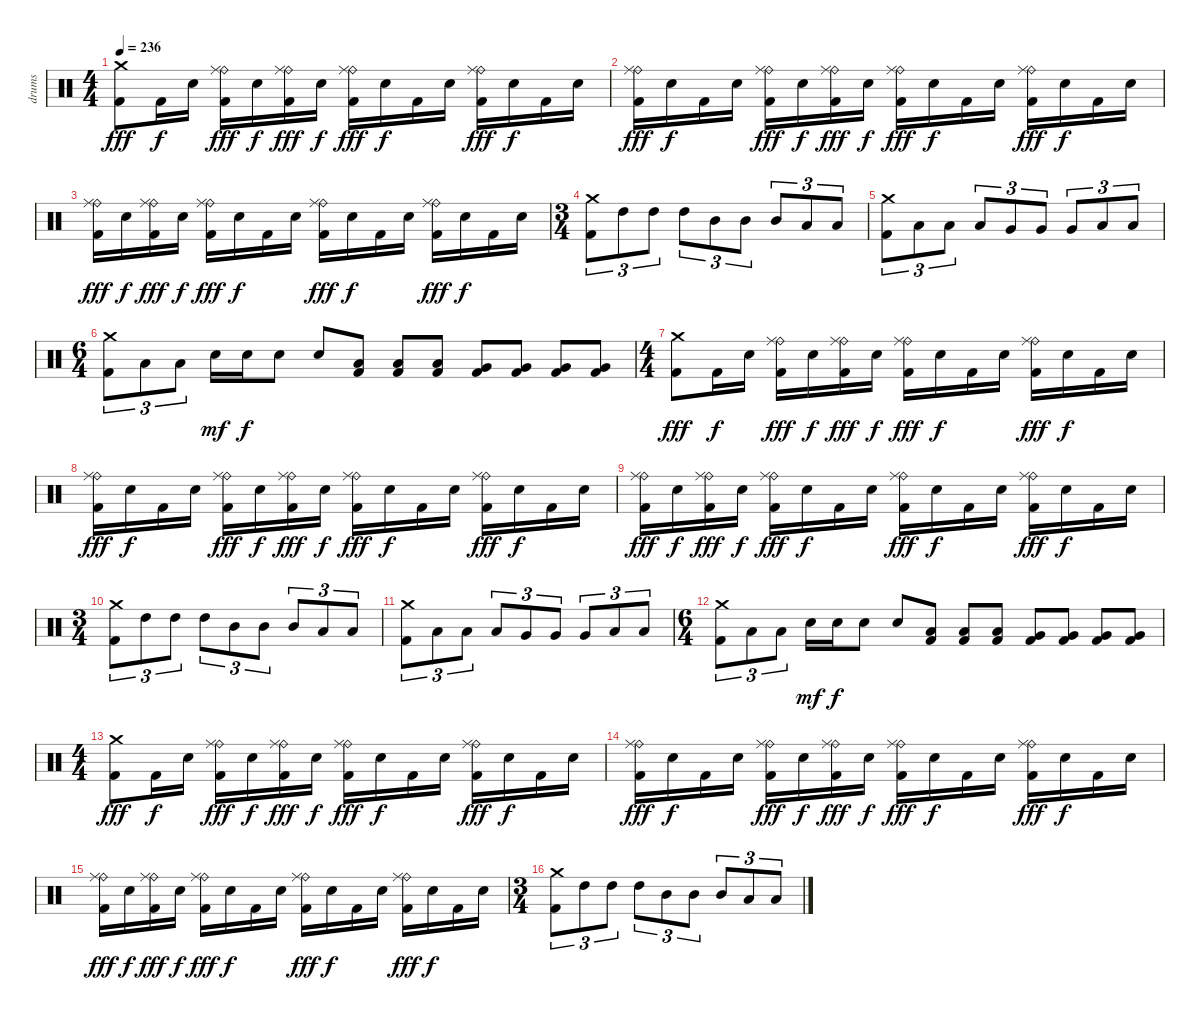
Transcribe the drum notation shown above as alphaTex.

\track ("drums" "drums") {instrument percussion}
\staff {score}
\articulation defaults
\ts (4 4)
\tempo 236
\clef neutral
\ks c
("Crash medium (hit)" "Kick (hit) 2").8{dy fff} "Kick (hit) 2".16{dy f} "Electric Snare (hit)".16 ("Ride (bell)" "Ride (middle)" "Kick (hit) 2").16{dy fff} "Electric Snare (hit)".16{dy f} ("Ride (bell)" "Ride (middle)" "Kick (hit) 2").16{dy fff} "Electric Snare (hit)".16{dy f} ("Ride (bell)" "Ride (middle)" "Kick (hit) 2").16{dy fff} "Electric Snare (hit)".16{dy f} "Kick (hit) 2".16 "Electric Snare (hit)".16 ("Ride (bell)" "Ride (middle)" "Kick (hit) 2").16{dy fff} "Electric Snare (hit)".16{dy f} "Kick (hit) 2".16 "Electric Snare (hit)".16 |
("Ride (bell)" "Ride (middle)" "Kick (hit) 2").16{dy fff} "Electric Snare (hit)".16{dy f} "Kick (hit) 2".16 "Electric Snare (hit)".16 ("Ride (bell)" "Ride (middle)" "Kick (hit) 2").16{dy fff} "Electric Snare (hit)".16{dy f} ("Ride (bell)" "Ride (middle)" "Kick (hit) 2").16{dy fff} "Electric Snare (hit)".16{dy f} ("Ride (bell)" "Ride (middle)" "Kick (hit) 2").16{dy fff} "Electric Snare (hit)".16{dy f} "Kick (hit) 2".16 "Electric Snare (hit)".16 ("Ride (bell)" "Ride (middle)" "Kick (hit) 2").16{dy fff} "Electric Snare (hit)".16{dy f} "Kick (hit) 2".16 "Electric Snare (hit)".16 |
("Ride (bell)" "Ride (middle)" "Kick (hit) 2").16{dy fff} "Electric Snare (hit)".16{dy f} ("Ride (bell)" "Ride (middle)" "Kick (hit) 2").16{dy fff} "Electric Snare (hit)".16{dy f} ("Ride (bell)" "Ride (middle)" "Kick (hit) 2").16{dy fff} "Electric Snare (hit)".16{dy f} "Kick (hit) 2".16 "Electric Snare (hit)".16 ("Ride (bell)" "Ride (middle)" "Kick (hit) 2").16{dy fff} "Electric Snare (hit)".16{dy f} "Kick (hit) 2".16 "Electric Snare (hit)".16 ("Ride (bell)" "Ride (middle)" "Kick (hit) 2").16{dy fff} "Electric Snare (hit)".16{dy f} "Kick (hit) 2".16 "Electric Snare (hit)".16 |
\ts (3 4)
("Crash medium (hit)" "Kick (hit) 2").8{tu (3 2)} "High Tom (hit)".8{tu (3 2)} "High Tom (hit)".8{tu (3 2)} "High Tom (hit)".8{tu (3 2)} "Mid Tom (hit)".8{tu (3 2)} "Mid Tom (hit)".8{tu (3 2)} "Mid Tom (hit)".8{tu (3 2)} "Low Tom (hit)".8{tu (3 2)} "Low Tom (hit)".8{tu (3 2)} |
("Crash medium (hit)" "Kick (hit) 2").8{tu (3 2)} "Low Tom (hit)".8{tu (3 2)} "Low Tom (hit)".8{tu (3 2)} "Low Tom (hit)".8{tu (3 2)} "Very Low Tom (hit)".8{tu (3 2)} "Very Low Tom (hit)".8{tu (3 2)} "Very Low Tom (hit)".8{tu (3 2)} "Low Floor Tom (hit)".8{tu (3 2)} "Low Floor Tom (hit)".8{tu (3 2)} |
\ts (6 4)
("Crash medium (hit)" "Kick (hit) 2").8{tu (3 2)} "Low Tom (hit)".8{tu (3 2)} "Low Tom (hit)".8{tu (3 2)} "Electric Snare (hit)".16{dy mf} "Electric Snare (hit)".16{dy f} "Electric Snare (hit)".8 "Electric Snare (hit)".8 ("Low Tom (hit)" "Kick (hit) 2").8 ("Low Tom (hit)" "Kick (hit) 2").8 ("Low Tom (hit)" "Kick (hit) 2").8 ("Very Low Tom (hit)" "Kick (hit) 2").8 ("Very Low Tom (hit)" "Kick (hit) 2").8 ("Very Low Tom (hit)" "Kick (hit) 2").8 ("Very Low Tom (hit)" "Kick (hit) 2").8 |
\ts (4 4)
("Crash medium (hit)" "Kick (hit) 2").8{dy fff} "Kick (hit) 2".16{dy f} "Electric Snare (hit)".16 ("Ride (bell)" "Ride (middle)" "Kick (hit) 2").16{dy fff} "Electric Snare (hit)".16{dy f} ("Ride (bell)" "Ride (middle)" "Kick (hit) 2").16{dy fff} "Electric Snare (hit)".16{dy f} ("Ride (bell)" "Ride (middle)" "Kick (hit) 2").16{dy fff} "Electric Snare (hit)".16{dy f} "Kick (hit) 2".16 "Electric Snare (hit)".16 ("Ride (bell)" "Ride (middle)" "Kick (hit) 2").16{dy fff} "Electric Snare (hit)".16{dy f} "Kick (hit) 2".16 "Electric Snare (hit)".16 |
("Ride (bell)" "Ride (middle)" "Kick (hit) 2").16{dy fff} "Electric Snare (hit)".16{dy f} "Kick (hit) 2".16 "Electric Snare (hit)".16 ("Ride (bell)" "Ride (middle)" "Kick (hit) 2").16{dy fff} "Electric Snare (hit)".16{dy f} ("Ride (bell)" "Ride (middle)" "Kick (hit) 2").16{dy fff} "Electric Snare (hit)".16{dy f} ("Ride (bell)" "Ride (middle)" "Kick (hit) 2").16{dy fff} "Electric Snare (hit)".16{dy f} "Kick (hit) 2".16 "Electric Snare (hit)".16 ("Ride (bell)" "Ride (middle)" "Kick (hit) 2").16{dy fff} "Electric Snare (hit)".16{dy f} "Kick (hit) 2".16 "Electric Snare (hit)".16 |
("Ride (bell)" "Ride (middle)" "Kick (hit) 2").16{dy fff} "Electric Snare (hit)".16{dy f} ("Ride (bell)" "Ride (middle)" "Kick (hit) 2").16{dy fff} "Electric Snare (hit)".16{dy f} ("Ride (bell)" "Ride (middle)" "Kick (hit) 2").16{dy fff} "Electric Snare (hit)".16{dy f} "Kick (hit) 2".16 "Electric Snare (hit)".16 ("Ride (bell)" "Ride (middle)" "Kick (hit) 2").16{dy fff} "Electric Snare (hit)".16{dy f} "Kick (hit) 2".16 "Electric Snare (hit)".16 ("Ride (bell)" "Ride (middle)" "Kick (hit) 2").16{dy fff} "Electric Snare (hit)".16{dy f} "Kick (hit) 2".16 "Electric Snare (hit)".16 |
\ts (3 4)
("Crash medium (hit)" "Kick (hit) 2").8{tu (3 2)} "High Tom (hit)".8{tu (3 2)} "High Tom (hit)".8{tu (3 2)} "High Tom (hit)".8{tu (3 2)} "Mid Tom (hit)".8{tu (3 2)} "Mid Tom (hit)".8{tu (3 2)} "Mid Tom (hit)".8{tu (3 2)} "Low Tom (hit)".8{tu (3 2)} "Low Tom (hit)".8{tu (3 2)} |
("Crash medium (hit)" "Kick (hit) 2").8{tu (3 2)} "Low Tom (hit)".8{tu (3 2)} "Low Tom (hit)".8{tu (3 2)} "Low Tom (hit)".8{tu (3 2)} "Very Low Tom (hit)".8{tu (3 2)} "Very Low Tom (hit)".8{tu (3 2)} "Very Low Tom (hit)".8{tu (3 2)} "Low Floor Tom (hit)".8{tu (3 2)} "Low Floor Tom (hit)".8{tu (3 2)} |
\ts (6 4)
("Crash medium (hit)" "Kick (hit) 2").8{tu (3 2)} "Low Tom (hit)".8{tu (3 2)} "Low Tom (hit)".8{tu (3 2)} "Electric Snare (hit)".16{dy mf} "Electric Snare (hit)".16{dy f} "Electric Snare (hit)".8 "Electric Snare (hit)".8 ("Low Tom (hit)" "Kick (hit) 2").8 ("Low Tom (hit)" "Kick (hit) 2").8 ("Low Tom (hit)" "Kick (hit) 2").8 ("Very Low Tom (hit)" "Kick (hit) 2").8 ("Very Low Tom (hit)" "Kick (hit) 2").8 ("Very Low Tom (hit)" "Kick (hit) 2").8 ("Very Low Tom (hit)" "Kick (hit) 2").8 |
\ts (4 4)
("Crash medium (hit)" "Kick (hit) 2").8{dy fff} "Kick (hit) 2".16{dy f} "Electric Snare (hit)".16 ("Ride (bell)" "Ride (middle)" "Kick (hit) 2").16{dy fff} "Electric Snare (hit)".16{dy f} ("Ride (bell)" "Ride (middle)" "Kick (hit) 2").16{dy fff} "Electric Snare (hit)".16{dy f} ("Ride (bell)" "Ride (middle)" "Kick (hit) 2").16{dy fff} "Electric Snare (hit)".16{dy f} "Kick (hit) 2".16 "Electric Snare (hit)".16 ("Ride (bell)" "Ride (middle)" "Kick (hit) 2").16{dy fff} "Electric Snare (hit)".16{dy f} "Kick (hit) 2".16 "Electric Snare (hit)".16 |
("Ride (bell)" "Ride (middle)" "Kick (hit) 2").16{dy fff} "Electric Snare (hit)".16{dy f} "Kick (hit) 2".16 "Electric Snare (hit)".16 ("Ride (bell)" "Ride (middle)" "Kick (hit) 2").16{dy fff} "Electric Snare (hit)".16{dy f} ("Ride (bell)" "Ride (middle)" "Kick (hit) 2").16{dy fff} "Electric Snare (hit)".16{dy f} ("Ride (bell)" "Ride (middle)" "Kick (hit) 2").16{dy fff} "Electric Snare (hit)".16{dy f} "Kick (hit) 2".16 "Electric Snare (hit)".16 ("Ride (bell)" "Ride (middle)" "Kick (hit) 2").16{dy fff} "Electric Snare (hit)".16{dy f} "Kick (hit) 2".16 "Electric Snare (hit)".16 |
("Ride (bell)" "Ride (middle)" "Kick (hit) 2").16{dy fff} "Electric Snare (hit)".16{dy f} ("Ride (bell)" "Ride (middle)" "Kick (hit) 2").16{dy fff} "Electric Snare (hit)".16{dy f} ("Ride (bell)" "Ride (middle)" "Kick (hit) 2").16{dy fff} "Electric Snare (hit)".16{dy f} "Kick (hit) 2".16 "Electric Snare (hit)".16 ("Ride (bell)" "Ride (middle)" "Kick (hit) 2").16{dy fff} "Electric Snare (hit)".16{dy f} "Kick (hit) 2".16 "Electric Snare (hit)".16 ("Ride (bell)" "Ride (middle)" "Kick (hit) 2").16{dy fff} "Electric Snare (hit)".16{dy f} "Kick (hit) 2".16 "Electric Snare (hit)".16 |
\ts (3 4)
("Crash medium (hit)" "Kick (hit) 2").8{tu (3 2)} "High Tom (hit)".8{tu (3 2)} "High Tom (hit)".8{tu (3 2)} "High Tom (hit)".8{tu (3 2)} "Mid Tom (hit)".8{tu (3 2)} "Mid Tom (hit)".8{tu (3 2)} "Mid Tom (hit)".8{tu (3 2)} "Low Tom (hit)".8{tu (3 2)} "Low Tom (hit)".8{tu (3 2)}
